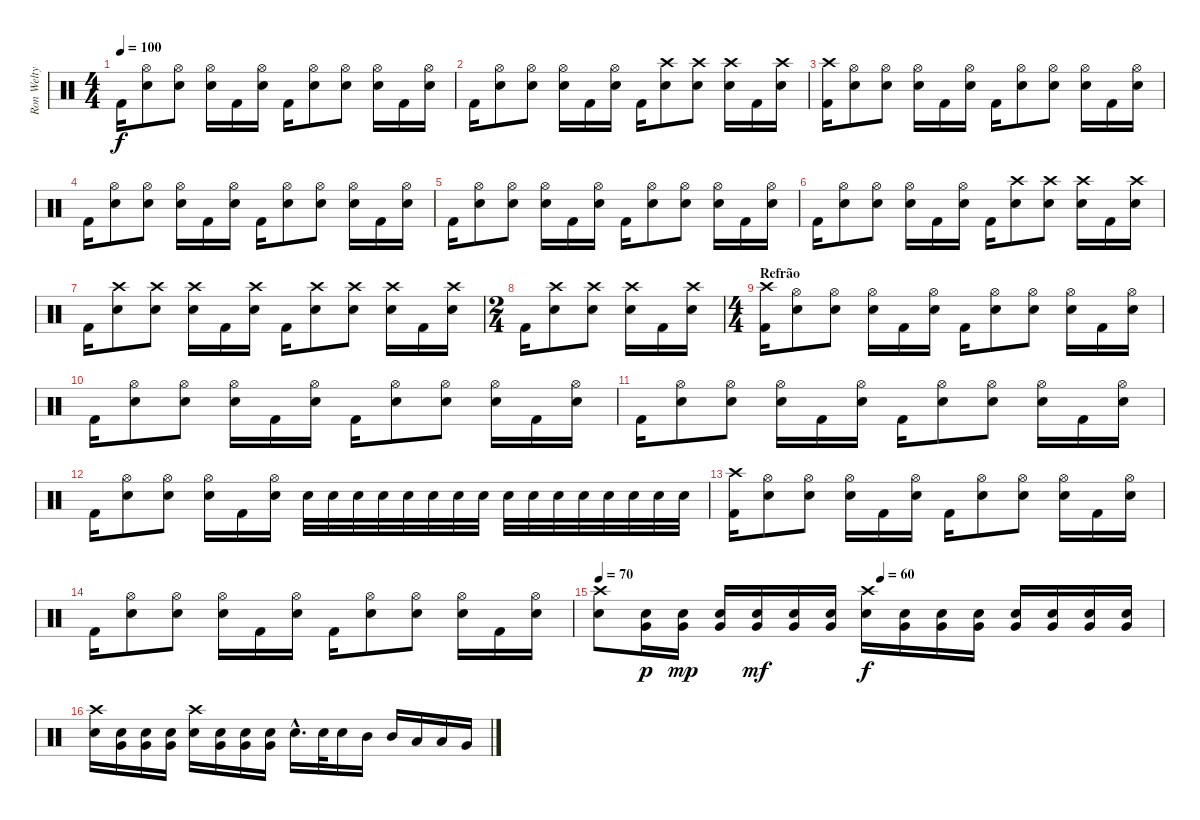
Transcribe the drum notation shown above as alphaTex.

\track ("Ron Welty" "Ron Welty") {instrument percussion}
\staff {score}
\articulation defaults
\ts (4 4)
\tempo 100
\clef neutral
\ks c "Kick (hit) 2".16{dy f}
("Hi-Hat (open)" "Snare (hit) 2").8 ("Hi-Hat (open)" "Snare (hit) 2").8 ("Hi-Hat (open)" "Snare (hit) 2").16 "Kick (hit) 2".16 ("Hi-Hat (open)" "Snare (hit) 2").16 "Kick (hit) 2".16 ("Hi-Hat (open)" "Snare (hit) 2").8 ("Hi-Hat (open)" "Snare (hit) 2").8 ("Hi-Hat (open)" "Snare (hit) 2").16 "Kick (hit) 2".16 ("Hi-Hat (open)" "Snare (hit) 2").16 |
"Kick (hit) 2".16 ("Hi-Hat (open)" "Snare (hit) 2").8 ("Hi-Hat (open)" "Snare (hit) 2").8 ("Hi-Hat (open)" "Snare (hit) 2").16 "Kick (hit) 2".16 ("Hi-Hat (open)" "Snare (hit) 2").16 "Kick (hit) 2".16 ("Crash high (hit)" "Snare (hit) 2").8 ("Crash high (hit)" "Snare (hit) 2").8 ("Crash high (hit)" "Snare (hit) 2").16 "Kick (hit) 2".16 ("Crash high (hit)" "Snare (hit) 2").16 |
("Crash high (hit)" "Kick (hit) 2").16 ("Hi-Hat (open)" "Snare (hit) 2").8 ("Hi-Hat (open)" "Snare (hit) 2").8 ("Hi-Hat (open)" "Snare (hit) 2").16 "Kick (hit) 2".16 ("Hi-Hat (open)" "Snare (hit) 2").16 "Kick (hit) 2".16 ("Hi-Hat (open)" "Snare (hit) 2").8 ("Hi-Hat (open)" "Snare (hit) 2").8 ("Hi-Hat (open)" "Snare (hit) 2").16 "Kick (hit) 2".16 ("Hi-Hat (open)" "Snare (hit) 2").16 |
"Kick (hit) 2".16 ("Hi-Hat (open)" "Snare (hit) 2").8 ("Hi-Hat (open)" "Snare (hit) 2").8 ("Hi-Hat (open)" "Snare (hit) 2").16 "Kick (hit) 2".16 ("Hi-Hat (open)" "Snare (hit) 2").16 "Kick (hit) 2".16 ("Hi-Hat (open)" "Snare (hit) 2").8 ("Hi-Hat (open)" "Snare (hit) 2").8 ("Hi-Hat (open)" "Snare (hit) 2").16 "Kick (hit) 2".16 ("Hi-Hat (open)" "Snare (hit) 2").16 |
"Kick (hit) 2".16 ("Hi-Hat (open)" "Snare (hit) 2").8 ("Hi-Hat (open)" "Snare (hit) 2").8 ("Hi-Hat (open)" "Snare (hit) 2").16 "Kick (hit) 2".16 ("Hi-Hat (open)" "Snare (hit) 2").16 "Kick (hit) 2".16 ("Hi-Hat (open)" "Snare (hit) 2").8 ("Hi-Hat (open)" "Snare (hit) 2").8 ("Hi-Hat (open)" "Snare (hit) 2").16 "Kick (hit) 2".16 ("Hi-Hat (open)" "Snare (hit) 2").16 |
"Kick (hit) 2".16 ("Hi-Hat (open)" "Snare (hit) 2").8 ("Hi-Hat (open)" "Snare (hit) 2").8 ("Hi-Hat (open)" "Snare (hit) 2").16 "Kick (hit) 2".16 ("Hi-Hat (open)" "Snare (hit) 2").16 "Kick (hit) 2".16 ("Crash high (hit)" "Snare (hit) 2").8 ("Crash high (hit)" "Snare (hit) 2").8 ("Crash high (hit)" "Snare (hit) 2").16 "Kick (hit) 2".16 ("Crash high (hit)" "Snare (hit) 2").16 |
"Kick (hit) 2".16 ("Crash high (hit)" "Snare (hit) 2").8 ("Crash high (hit)" "Snare (hit) 2").8 ("Crash high (hit)" "Snare (hit) 2").16 "Kick (hit) 2".16 ("Crash high (hit)" "Snare (hit) 2").16 "Kick (hit) 2".16 ("Crash high (hit)" "Snare (hit) 2").8 ("Crash high (hit)" "Snare (hit) 2").8 ("Crash high (hit)" "Snare (hit) 2").16 "Kick (hit) 2".16 ("Crash high (hit)" "Snare (hit) 2").16 |
\ts (2 4)
"Kick (hit) 2".16 ("Crash high (hit)" "Snare (hit) 2").8 ("Crash high (hit)" "Snare (hit) 2").8 ("Crash high (hit)" "Snare (hit) 2").16 "Kick (hit) 2".16 ("Crash high (hit)" "Snare (hit) 2").16 |
\ts (4 4)
\section ("" "Refrão")
("Crash high (hit)" "Kick (hit) 2").16 ("Hi-Hat (open)" "Snare (hit) 2").8 ("Hi-Hat (open)" "Snare (hit) 2").8 ("Hi-Hat (open)" "Snare (hit) 2").16 "Kick (hit) 2".16 ("Hi-Hat (open)" "Snare (hit) 2").16 "Kick (hit) 2".16 ("Hi-Hat (open)" "Snare (hit) 2").8 ("Hi-Hat (open)" "Snare (hit) 2").8 ("Hi-Hat (open)" "Snare (hit) 2").16 "Kick (hit) 2".16 ("Hi-Hat (open)" "Snare (hit) 2").16 |
"Kick (hit) 2".16 ("Hi-Hat (open)" "Snare (hit) 2").8 ("Hi-Hat (open)" "Snare (hit) 2").8 ("Hi-Hat (open)" "Snare (hit) 2").16 "Kick (hit) 2".16 ("Hi-Hat (open)" "Snare (hit) 2").16 "Kick (hit) 2".16 ("Hi-Hat (open)" "Snare (hit) 2").8 ("Hi-Hat (open)" "Snare (hit) 2").8 ("Hi-Hat (open)" "Snare (hit) 2").16 "Kick (hit) 2".16 ("Hi-Hat (open)" "Snare (hit) 2").16 |
"Kick (hit) 2".16 ("Hi-Hat (open)" "Snare (hit) 2").8 ("Hi-Hat (open)" "Snare (hit) 2").8 ("Hi-Hat (open)" "Snare (hit) 2").16 "Kick (hit) 2".16 ("Hi-Hat (open)" "Snare (hit) 2").16 "Kick (hit) 2".16 ("Hi-Hat (open)" "Snare (hit) 2").8 ("Hi-Hat (open)" "Snare (hit) 2").8 ("Hi-Hat (open)" "Snare (hit) 2").16 "Kick (hit) 2".16 ("Hi-Hat (open)" "Snare (hit) 2").16 |
"Kick (hit) 2".16 ("Hi-Hat (open)" "Snare (hit) 2").8 ("Hi-Hat (open)" "Snare (hit) 2").8 ("Hi-Hat (open)" "Snare (hit) 2").16 "Kick (hit) 2".16 ("Hi-Hat (open)" "Snare (hit) 2").16 "Snare (hit) 2".32 "Snare (hit) 2".32 "Snare (hit) 2".32 "Snare (hit) 2".32 "Snare (hit) 2".32 "Snare (hit) 2".32 "Snare (hit) 2".32 "Snare (hit) 2".32 "Snare (hit) 2".32 "Snare (hit) 2".32 "Snare (hit) 2".32 "Snare (hit) 2".32 "Snare (hit) 2".32 "Snare (hit) 2".32 "Snare (hit) 2".32 "Snare (hit) 2".32 |
("Crash high (hit)" "Kick (hit) 2").16 ("Hi-Hat (open)" "Snare (hit) 2").8 ("Hi-Hat (open)" "Snare (hit) 2").8 ("Hi-Hat (open)" "Snare (hit) 2").16 "Kick (hit) 2".16 ("Hi-Hat (open)" "Snare (hit) 2").16 "Kick (hit) 2".16 ("Hi-Hat (open)" "Snare (hit) 2").8 ("Hi-Hat (open)" "Snare (hit) 2").8 ("Hi-Hat (open)" "Snare (hit) 2").16 "Kick (hit) 2".16 ("Hi-Hat (open)" "Snare (hit) 2").16 |
"Kick (hit) 2".16 ("Hi-Hat (open)" "Snare (hit) 2").8 ("Hi-Hat (open)" "Snare (hit) 2").8 ("Hi-Hat (open)" "Snare (hit) 2").16 "Kick (hit) 2".16 ("Hi-Hat (open)" "Snare (hit) 2").16 "Kick (hit) 2".16 ("Hi-Hat (open)" "Snare (hit) 2").8 ("Hi-Hat (open)" "Snare (hit) 2").8 ("Hi-Hat (open)" "Snare (hit) 2").16 "Kick (hit) 2".16 ("Hi-Hat (open)" "Snare (hit) 2").16 |
\tempo 70
\tempo (60 0.5)
("Crash high (hit)" "Snare (hit) 2").8 ("Snare (hit) 2" "Very Low Tom (hit)").16{dy p} ("Snare (hit) 2" "Very Low Tom (hit)").16{dy mp} ("Snare (hit) 2" "Very Low Tom (hit)").16 ("Snare (hit) 2" "Very Low Tom (hit)").16{dy mf} ("Snare (hit) 2" "Very Low Tom (hit)").16 ("Snare (hit) 2" "Very Low Tom (hit)").16 ("Crash high (hit)" "Snare (hit) 2").16{dy f} ("Snare (hit) 2" "Very Low Tom (hit)").16 ("Snare (hit) 2" "Very Low Tom (hit)").16 ("Snare (hit) 2" "Very Low Tom (hit)").16 ("Snare (hit) 2" "Very Low Tom (hit)").16 ("Snare (hit) 2" "Very Low Tom (hit)").16 ("Snare (hit) 2" "Very Low Tom (hit)").16 ("Snare (hit) 2" "Very Low Tom (hit)").16 |
("Crash high (hit)" "Snare (hit) 2").16 ("Snare (hit) 2" "Very Low Tom (hit)").16 ("Snare (hit) 2" "Very Low Tom (hit)").16 ("Snare (hit) 2" "Very Low Tom (hit)").16 ("Crash high (hit)" "Snare (hit) 2").16 ("Snare (hit) 2" "Very Low Tom (hit)").16 ("Snare (hit) 2" "Very Low Tom (hit)").16 ("Snare (hit) 2" "Very Low Tom (hit)").16 "Snare (hit) 2"{hac}.16{d} "Snare (hit) 2".32 "Snare (hit) 2".16 "Mid Tom (hit)".16 "Mid Tom (hit)".16 "Low Tom (hit)".16 "Low Tom (hit)".16 "Very Low Tom (hit)".16
